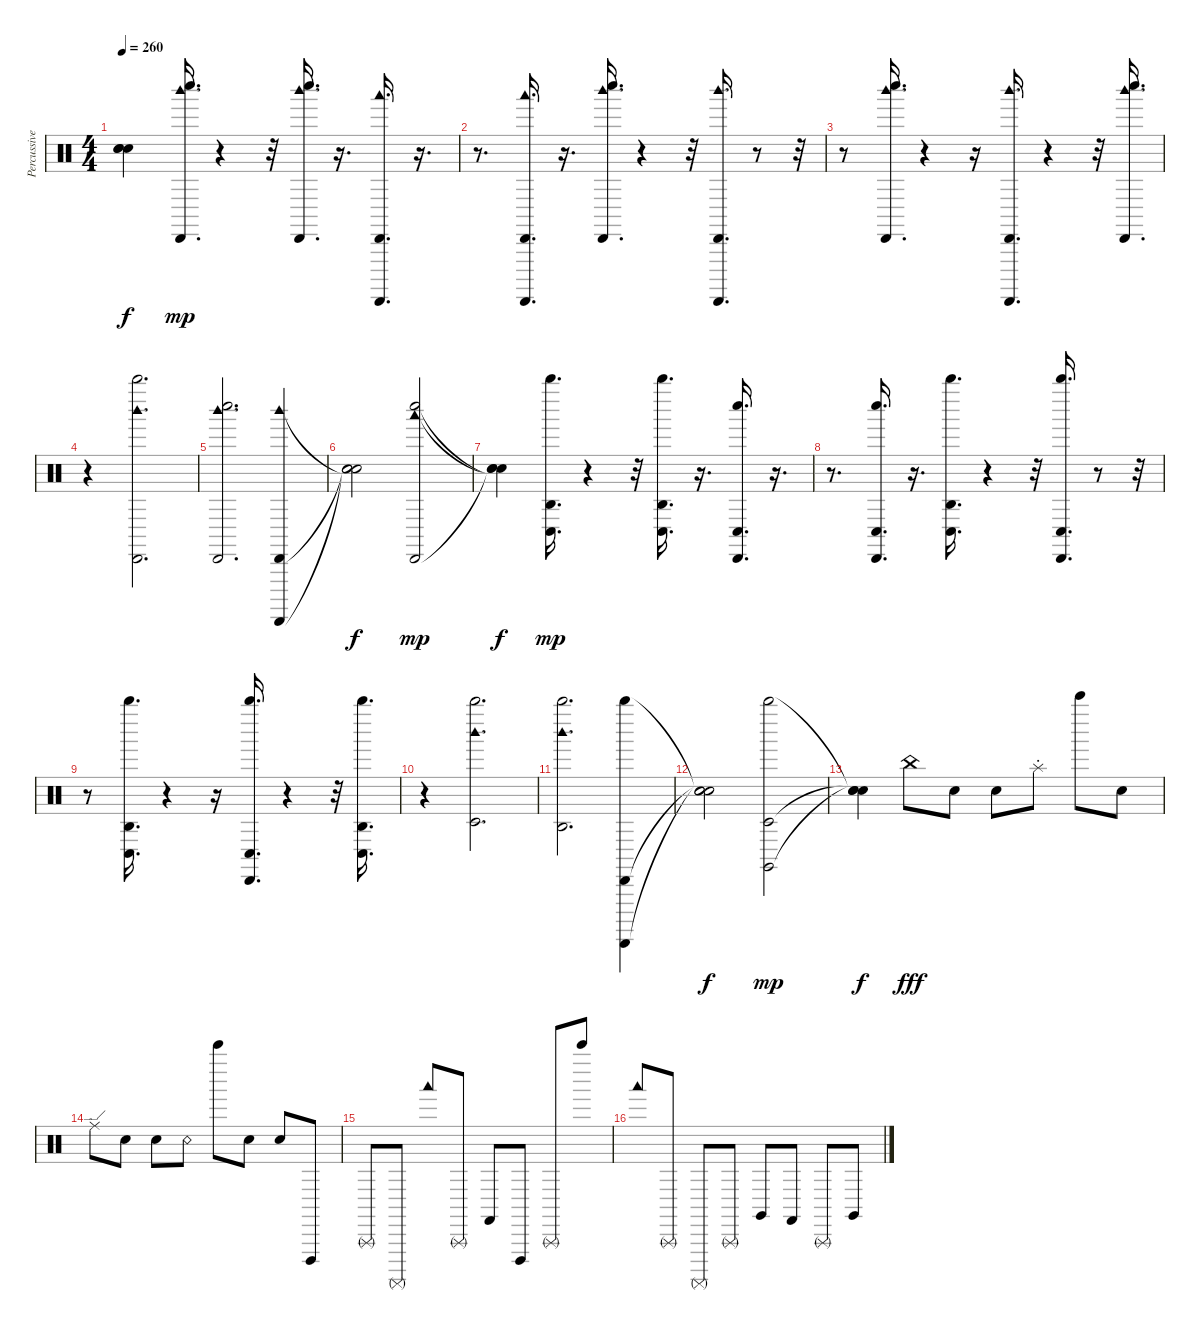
\track ("Percussive Organ" "Percussive") {instrument percussion}
\staff {score}
\articulation defaults
\ts (4 4)
\tempo 260
\clef neutral
\ks c
("Snare (hit)"{t} "Snare (hit)"{t} "Snare (hit)"{t}).4{dy f} ("Cabasa (hit)" "Woodblock high (hit)" "Whistle low (hit)").16{d dy mp} r.4 r.32 ("Cabasa (hit)" "Woodblock high (hit)" "Whistle low (hit)").16{d} r.16{d} ("Cabasa (hit)" "Woodblock low (hit)" "Guiro (scrap-return)").16{d} r.16{d} |
r.8{d} ("Cabasa (hit)" "Woodblock low (hit)" "Guiro (scrap-return)").16{d} r.16{d} ("Cabasa (hit)" "Woodblock high (hit)" "Whistle low (hit)").16{d} r.4 r.32 ("Cabasa (hit)" "Guiro (scrap-return)" "Woodblock high (hit)").16{d} r.8 r.32 |
r.8 ("Cabasa (hit)" "Woodblock high (hit)" "Whistle low (hit)").16{d} r.4 r.16 ("Cabasa (hit)" "Guiro (scrap-return)" "Woodblock high (hit)").16{d} r.4 r.32 ("Cabasa (hit)" "Woodblock high (hit)" "Whistle low (hit)").16{d} |
r.4 ("Cabasa (hit)" "Woodblock high (hit)" "Whistle high (hit)").2{d} |
("Cabasa (hit)" "Woodblock high (hit)" "Whistle low (hit)").2{d} ("Cabasa (hit)" "Woodblock high (hit)" "Guiro (scrap-return)").4 |
("Snare (hit)"{t} "Snare (hit)"{t} "Snare (hit)"{t}).2{dy f} ("Cabasa (hit)" "Whistle low (hit)" "Woodblock low (hit)").2{dy mp} |
("Snare (hit)"{t} "Snare (hit)"{t} "Snare (hit)"{t}).4{dy f} ("Conga low (hit)" "Whistle high (hit)" "Agogo high (hit)").16{d dy mp} r.4 r.32 ("Conga low (hit)" "Whistle high (hit)" "Agogo high (hit)").16{d} r.16{d} ("Conga low (hit)" "Whistle low (hit)" "Cabasa (hit)").16{d} r.16{d} |
r.8{d} ("Conga low (hit)" "Whistle low (hit)" "Cabasa (hit)").16{d} r.16{d} ("Conga low (hit)" "Whistle high (hit)" "Agogo high (hit)").16{d} r.4 r.32 ("Conga low (hit)" "Cabasa (hit)" "Whistle high (hit)").16{d} r.8 r.32 |
r.8 ("Conga low (hit)" "Whistle high (hit)" "Agogo high (hit)").16{d} r.4 r.16 ("Conga low (hit)" "Cabasa (hit)" "Whistle high (hit)").16{d} r.4 r.32 ("Conga low (hit)" "Whistle high (hit)" "Agogo high (hit)").16{d} |
r.4 ("Timbale low (hit)" "Whistle high (hit)" "Woodblock high (hit)").2{d} |
("Agogo high (hit)" "Whistle high (hit)" "Woodblock high (hit)").2{d} ("Cabasa (hit)" "Whistle high (hit)" "Guiro (scrap-return)").4 |
("Snare (hit)"{t} "Snare (hit)"{t} "Snare (hit)"{t}).2{dy f} ("Timbale low (hit)" "Whistle high (hit)" "Claves (hit)").2{dy mp} |
("Snare (hit)"{t} "Snare (hit)"{t} "Snare (hit)"{t}).4{dy f} "China (choke)".8{dy fff} "Snare (hit)".8 "Snare (hit)".8 "Splash (choke)".8 "Bell Tree (hit)".8 "Snare (hit)".8 |
"Ride (edge)".8 "Snare (hit)".8 "Snare (hit)".8 "Snare (rim shot)".8 "Bell Tree (hit)".8 "Snare (hit)".8 "Snare (hit)".8 "Cuica (open)".8 |
"Triangle (rnute)".8 "Surdo (mute)".8 "Woodblock low (hit)".8 "Triangle (rnute)".8 "Castanets (hit)".8 "Cuica (open)".8 "Triangle (rnute)".8 "Bell Tree (hit)".8 |
"Woodblock low (hit)".8 "Triangle (rnute)".8 "Surdo (mute)".8 "Triangle (rnute)".8 "Claves (hit)".8 "Castanets (hit)".8 "Triangle (rnute)".8 "Claves (hit)".8
